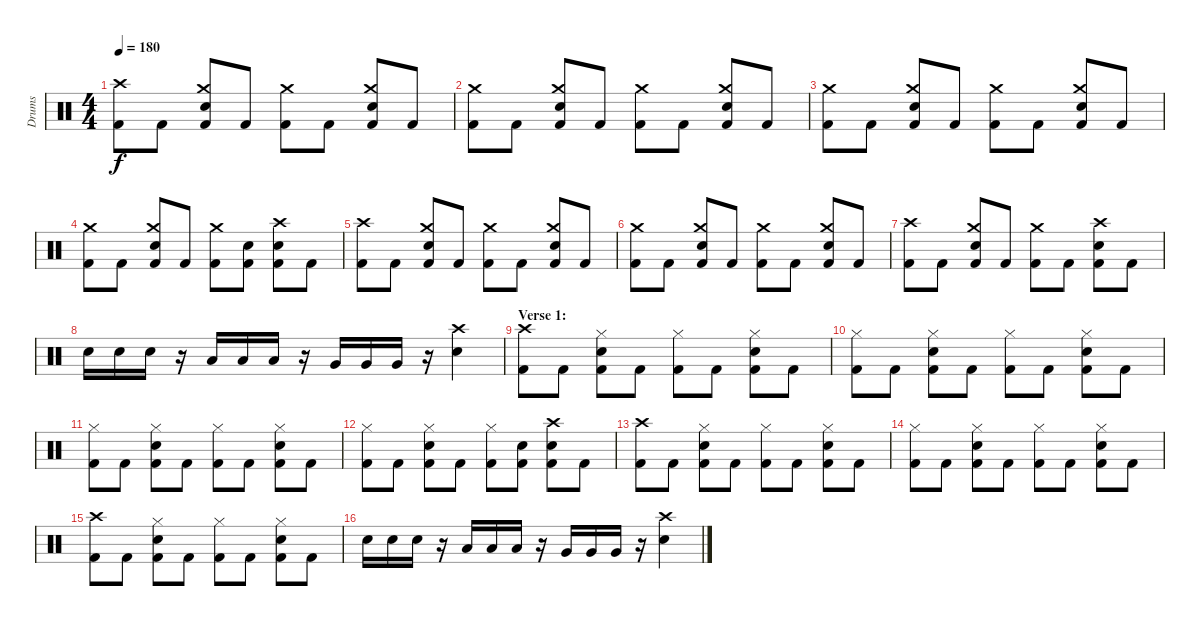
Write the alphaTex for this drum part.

\track ("Drums" "Drums") {instrument percussion}
\staff {score}
\articulation defaults
\ts (4 4)
\tempo 180
\clef neutral
\ks c
("Crash high (hit)" "Kick (hit) 2").8{dy f} "Kick (hit) 2".8 ("Crash medium (hit)" "Electric Snare (hit)" "Kick (hit) 2").8 "Kick (hit) 2".8 ("Crash medium (hit)" "Kick (hit) 2").8 "Kick (hit) 2".8 ("Crash medium (hit)" "Electric Snare (hit)" "Kick (hit) 2").8 "Kick (hit) 2".8 |
("Crash medium (hit)" "Kick (hit) 2").8 "Kick (hit) 2".8 ("Crash medium (hit)" "Electric Snare (hit)" "Kick (hit) 2").8 "Kick (hit) 2".8 ("Crash medium (hit)" "Kick (hit) 2").8 "Kick (hit) 2".8 ("Crash medium (hit)" "Electric Snare (hit)" "Kick (hit) 2").8 "Kick (hit) 2".8 |
("Crash medium (hit)" "Kick (hit) 2").8 "Kick (hit) 2".8 ("Crash medium (hit)" "Electric Snare (hit)" "Kick (hit) 2").8 "Kick (hit) 2".8 ("Crash medium (hit)" "Kick (hit) 2").8 "Kick (hit) 2".8 ("Crash medium (hit)" "Electric Snare (hit)" "Kick (hit) 2").8 "Kick (hit) 2".8 |
("Crash medium (hit)" "Kick (hit) 2").8 "Kick (hit) 2".8 ("Crash medium (hit)" "Electric Snare (hit)" "Kick (hit) 2").8 "Kick (hit) 2".8 ("Crash medium (hit)" "Kick (hit) 2").8 ("Electric Snare (hit)" "Kick (hit) 2").8 ("Crash high (hit)" "Electric Snare (hit)" "Kick (hit) 2").8 "Kick (hit) 2".8 |
("Crash high (hit)" "Kick (hit) 2").8 "Kick (hit) 2".8 ("Crash medium (hit)" "Electric Snare (hit)" "Kick (hit) 2").8 "Kick (hit) 2".8 ("Crash medium (hit)" "Kick (hit) 2").8 "Kick (hit) 2".8 ("Crash medium (hit)" "Electric Snare (hit)" "Kick (hit) 2").8 "Kick (hit) 2".8 |
("Crash medium (hit)" "Kick (hit) 2").8 "Kick (hit) 2".8 ("Crash medium (hit)" "Electric Snare (hit)" "Kick (hit) 2").8 "Kick (hit) 2".8 ("Crash medium (hit)" "Kick (hit) 2").8 "Kick (hit) 2".8 ("Crash medium (hit)" "Electric Snare (hit)" "Kick (hit) 2").8 "Kick (hit) 2".8 |
("Crash high (hit)" "Kick (hit) 2").8 "Kick (hit) 2".8 ("Crash medium (hit)" "Electric Snare (hit)" "Kick (hit) 2").8 "Kick (hit) 2".8 ("Crash medium (hit)" "Kick (hit) 2").8 "Kick (hit) 2".8 ("Crash high (hit)" "Electric Snare (hit)" "Kick (hit) 2").8 "Kick (hit) 2".8 |
"Electric Snare (hit)".16 "Electric Snare (hit)".16 "Electric Snare (hit)".16 r.16 "Low Tom (hit)".16 "Low Tom (hit)".16 "Low Tom (hit)".16 r.16 "Very Low Tom (hit)".16 "Very Low Tom (hit)".16 "Very Low Tom (hit)".16 r.16 ("Crash high (hit)" "Electric Snare (hit)").4 |
\section ("" "Verse 1:")
("Crash high (hit)" "Kick (hit) 2").8 "Kick (hit) 2".8 ("Hi-Hat (closed)" "Electric Snare (hit)" "Kick (hit) 2").8 "Kick (hit) 2".8 ("Hi-Hat (closed)" "Kick (hit) 2").8 "Kick (hit) 2".8 ("Hi-Hat (closed)" "Electric Snare (hit)" "Kick (hit) 2").8 "Kick (hit) 2".8 |
("Hi-Hat (closed)" "Kick (hit) 2").8 "Kick (hit) 2".8 ("Hi-Hat (closed)" "Electric Snare (hit)" "Kick (hit) 2").8 "Kick (hit) 2".8 ("Hi-Hat (closed)" "Kick (hit) 2").8 "Kick (hit) 2".8 ("Hi-Hat (closed)" "Electric Snare (hit)" "Kick (hit) 2").8 "Kick (hit) 2".8 |
("Hi-Hat (closed)" "Kick (hit) 2").8 "Kick (hit) 2".8 ("Hi-Hat (closed)" "Electric Snare (hit)" "Kick (hit) 2").8 "Kick (hit) 2".8 ("Hi-Hat (closed)" "Kick (hit) 2").8 "Kick (hit) 2".8 ("Hi-Hat (closed)" "Electric Snare (hit)" "Kick (hit) 2").8 "Kick (hit) 2".8 |
("Hi-Hat (closed)" "Kick (hit) 2").8 "Kick (hit) 2".8 ("Hi-Hat (closed)" "Electric Snare (hit)" "Kick (hit) 2").8 "Kick (hit) 2".8 ("Hi-Hat (closed)" "Kick (hit) 2").8 ("Electric Snare (hit)" "Kick (hit) 2").8 ("Crash high (hit)" "Electric Snare (hit)" "Kick (hit) 2").8 "Kick (hit) 2".8 |
("Crash high (hit)" "Kick (hit) 2").8 "Kick (hit) 2".8 ("Hi-Hat (closed)" "Electric Snare (hit)" "Kick (hit) 2").8 "Kick (hit) 2".8 ("Hi-Hat (closed)" "Kick (hit) 2").8 "Kick (hit) 2".8 ("Hi-Hat (closed)" "Electric Snare (hit)" "Kick (hit) 2").8 "Kick (hit) 2".8 |
("Hi-Hat (closed)" "Kick (hit) 2").8 "Kick (hit) 2".8 ("Hi-Hat (closed)" "Electric Snare (hit)" "Kick (hit) 2").8 "Kick (hit) 2".8 ("Hi-Hat (closed)" "Kick (hit) 2").8 "Kick (hit) 2".8 ("Hi-Hat (closed)" "Electric Snare (hit)" "Kick (hit) 2").8 "Kick (hit) 2".8 |
("Crash high (hit)" "Kick (hit) 2").8 "Kick (hit) 2".8 ("Hi-Hat (closed)" "Electric Snare (hit)" "Kick (hit) 2").8 "Kick (hit) 2".8 ("Hi-Hat (closed)" "Kick (hit) 2").8 "Kick (hit) 2".8 ("Hi-Hat (closed)" "Electric Snare (hit)" "Kick (hit) 2").8 "Kick (hit) 2".8 |
"Electric Snare (hit)".16 "Electric Snare (hit)".16 "Electric Snare (hit)".16 r.16 "Low Tom (hit)".16 "Low Tom (hit)".16 "Low Tom (hit)".16 r.16 "Very Low Tom (hit)".16 "Very Low Tom (hit)".16 "Very Low Tom (hit)".16 r.16 ("Crash high (hit)" "Electric Snare (hit)").4
